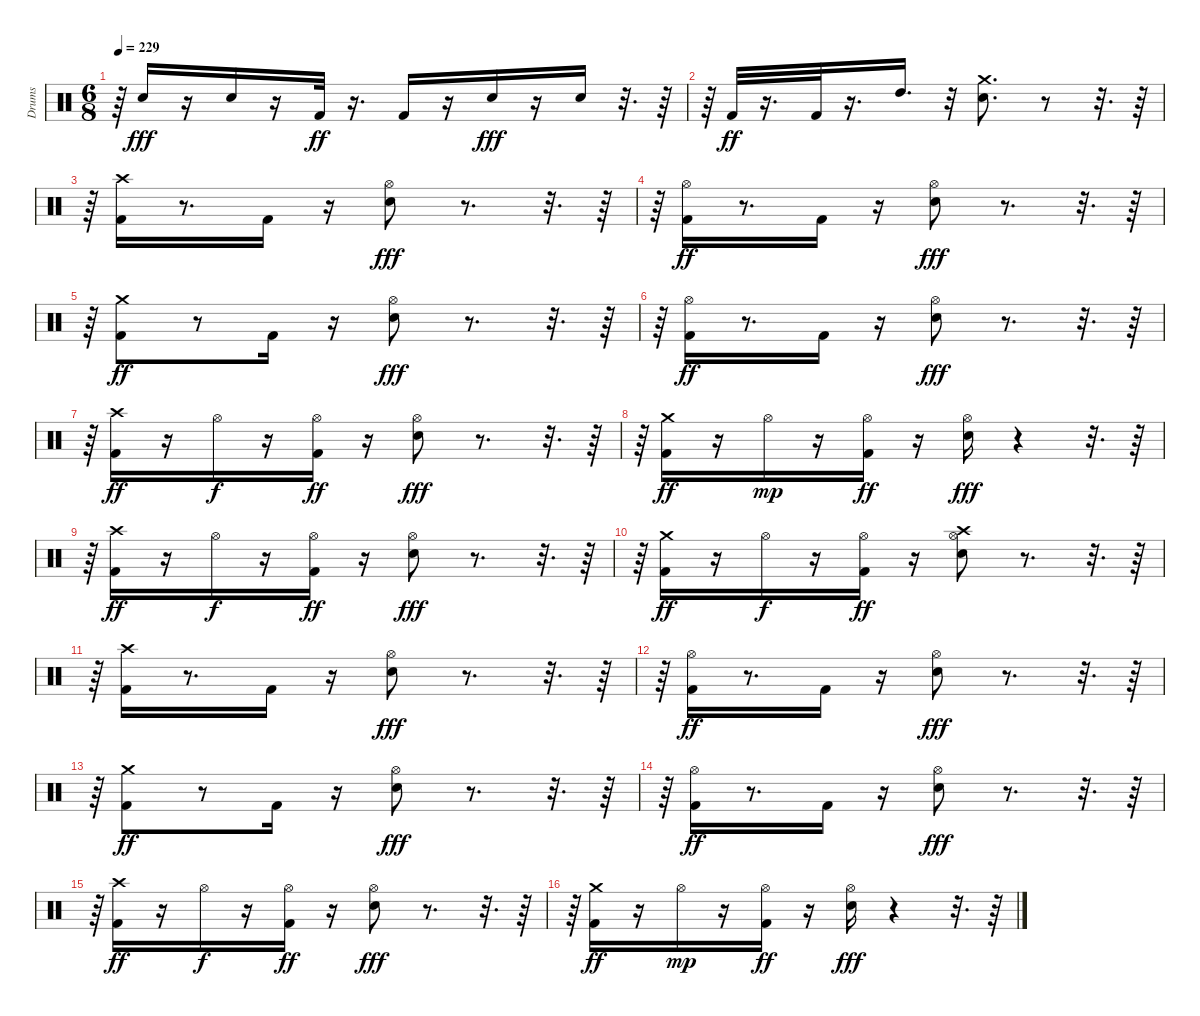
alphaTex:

\track ("Drums" "Drums") {instrument percussion}
\staff {score}
\articulation defaults
\ts (6 8)
\tempo 229
\clef neutral
\ks c
r.64{dy ff} "Snare (hit) 2".16{dy fff} r.16 "Snare (hit) 2".16 r.16 "Kick (hit) 2".32{dy ff} r.16{d} "Kick (hit) 2".16 r.16 "Snare (hit) 2".16{dy fff} r.16 "Snare (hit) 2".16 r.32{d} r.64 |
r.64 "Kick (hit) 2".32{dy ff} r.16{d} "Kick (hit) 2".32 r.16{d} "High Tom (hit)".16{d} r.32 ("Snare (hit) 2" "Crash medium (hit)").8{d} r.8 r.32{d} r.64 |
r.64 ("Kick (hit) 2" "Crash high (hit)").16 r.8{d} "Kick (hit) 2".16 r.16 ("Snare (hit) 2" "Hi-Hat (open)").8{dy fff} r.8{d} r.32{d} r.64 |
r.64 ("Kick (hit) 2" "Hi-Hat (open)").16{dy ff} r.8{d} "Kick (hit) 2".16 r.16 ("Snare (hit) 2" "Hi-Hat (open)").8{dy fff} r.8{d} r.32{d} r.64 |
r.64 ("Kick (hit) 2" "Crash medium (hit)").8{dy ff} r.8 "Kick (hit) 2".16 r.16 ("Snare (hit) 2" "Hi-Hat (open)").8{dy fff} r.8{d} r.32{d} r.64 |
r.64 ("Kick (hit) 2" "Hi-Hat (open)").16{dy ff} r.8{d} "Kick (hit) 2".16 r.16 ("Snare (hit) 2" "Hi-Hat (open)").8{dy fff} r.8{d} r.32{d} r.64 |
r.64 ("Kick (hit) 2" "Crash high (hit)").16{dy ff} r.16 "Hi-Hat (open)".16{dy f} r.16 ("Kick (hit) 2" "Hi-Hat (open)").16{dy ff} r.16 ("Snare (hit) 2" "Hi-Hat (open)").8{dy fff} r.8{d} r.32{d} r.64 |
r.64 ("Kick (hit) 2" "Crash medium (hit)").16{dy ff} r.16 "Hi-Hat (open)".16{dy mp} r.16 ("Kick (hit) 2" "Hi-Hat (open)").16{dy ff} r.16 ("Snare (hit) 2" "Hi-Hat (open)").16{dy fff} r.4 r.32{d} r.64 |
r.64 ("Kick (hit) 2" "Crash high (hit)").16{dy ff} r.16 "Hi-Hat (open)".16{dy f} r.16 ("Kick (hit) 2" "Hi-Hat (open)").16{dy ff} r.16 ("Snare (hit) 2" "Hi-Hat (open)").8{dy fff} r.8{d} r.32{d} r.64 |
r.64 ("Kick (hit) 2" "Crash medium (hit)").16{dy ff} r.16 "Hi-Hat (open)".16{dy f} r.16 ("Kick (hit) 2" "Hi-Hat (open)").16{dy ff} r.16 ("Snare (hit) 2" "Hi-Hat (open)" "Crash high (hit)").8 r.8{d} r.32{d} r.64 |
r.64 ("Kick (hit) 2" "Crash high (hit)").16 r.8{d} "Kick (hit) 2".16 r.16 ("Snare (hit) 2" "Hi-Hat (open)").8{dy fff} r.8{d} r.32{d} r.64 |
r.64 ("Kick (hit) 2" "Hi-Hat (open)").16{dy ff} r.8{d} "Kick (hit) 2".16 r.16 ("Snare (hit) 2" "Hi-Hat (open)").8{dy fff} r.8{d} r.32{d} r.64 |
r.64 ("Kick (hit) 2" "Crash medium (hit)").8{dy ff} r.8 "Kick (hit) 2".16 r.16 ("Snare (hit) 2" "Hi-Hat (open)").8{dy fff} r.8{d} r.32{d} r.64 |
r.64 ("Kick (hit) 2" "Hi-Hat (open)").16{dy ff} r.8{d} "Kick (hit) 2".16 r.16 ("Snare (hit) 2" "Hi-Hat (open)").8{dy fff} r.8{d} r.32{d} r.64 |
r.64 ("Kick (hit) 2" "Crash high (hit)").16{dy ff} r.16 "Hi-Hat (open)".16{dy f} r.16 ("Kick (hit) 2" "Hi-Hat (open)").16{dy ff} r.16 ("Snare (hit) 2" "Hi-Hat (open)").8{dy fff} r.8{d} r.32{d} r.64 |
r.64 ("Kick (hit) 2" "Crash medium (hit)").16{dy ff} r.16 "Hi-Hat (open)".16{dy mp} r.16 ("Kick (hit) 2" "Hi-Hat (open)").16{dy ff} r.16 ("Snare (hit) 2" "Hi-Hat (open)").16{dy fff} r.4 r.32{d} r.64
